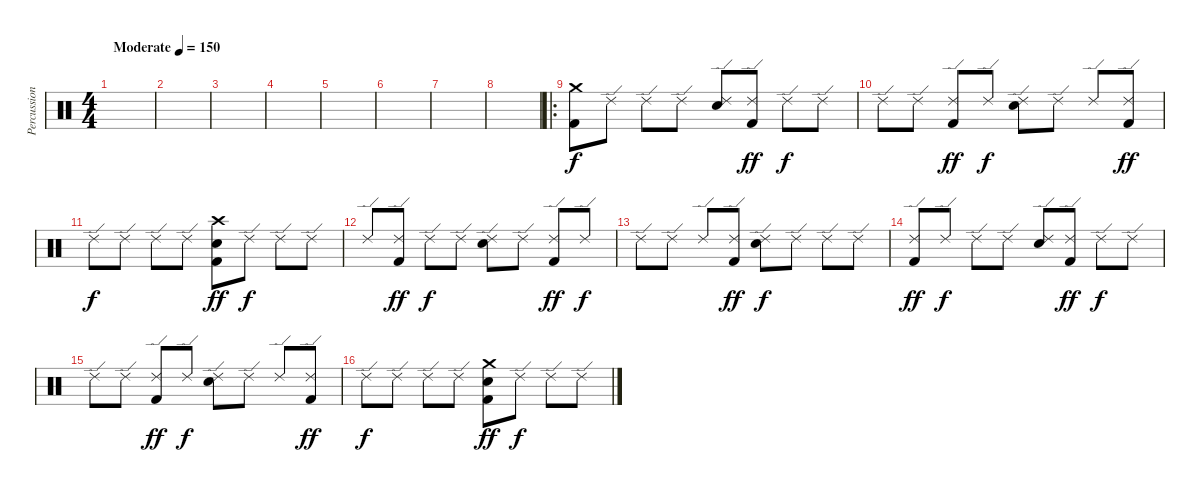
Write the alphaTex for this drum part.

\track ("Percussion" "Percussion") {instrument percussion}
\staff {score}
\articulation defaults
\ts (4 4)
\tempo (150 "Moderate")
\clef neutral
\ks c
|
|
|
|
|
|
|
|
\ro
("Crash medium (hit)" "Kick (hit) 2").8 "Ride (edge) 2".8{dy f} "Ride (edge) 2".8 "Ride (edge) 2".8 ("Ride (edge) 2" "Snare (hit) 2").8 ("Ride (edge) 2" "Kick (hit) 2").8{dy ff} "Ride (edge) 2".8{dy f} "Ride (edge) 2".8 |
"Ride (edge) 2".8 "Ride (edge) 2".8 ("Ride (edge) 2" "Kick (hit) 2").8{dy ff} "Ride (edge) 2".8{dy f} ("Ride (edge) 2" "Snare (hit) 2").8 "Ride (edge) 2".8 "Ride (edge) 2".8 ("Ride (edge) 2" "Kick (hit) 2").8{dy ff} |
"Ride (edge) 2".8{dy f} "Ride (edge) 2".8 "Ride (edge) 2".8 "Ride (edge) 2".8 ("Crash high (hit)" "Snare (hit) 2" "Kick (hit) 2").8{dy ff} "Ride (edge) 2".8{dy f} "Ride (edge) 2".8 "Ride (edge) 2".8 |
"Ride (edge) 2".8 ("Ride (edge) 2" "Kick (hit) 2").8{dy ff} "Ride (edge) 2".8{dy f} "Ride (edge) 2".8 ("Ride (edge) 2" "Snare (hit) 2").8 "Ride (edge) 2".8 ("Ride (edge) 2" "Kick (hit) 2").8{dy ff} "Ride (edge) 2".8{dy f} |
"Ride (edge) 2".8 "Ride (edge) 2".8 "Ride (edge) 2".8 ("Ride (edge) 2" "Kick (hit) 2").8{dy ff} ("Ride (edge) 2" "Snare (hit) 2").8{dy f} "Ride (edge) 2".8 "Ride (edge) 2".8 "Ride (edge) 2".8 |
("Ride (edge) 2" "Kick (hit) 2").8{dy ff} "Ride (edge) 2".8{dy f} "Ride (edge) 2".8 "Ride (edge) 2".8 ("Ride (edge) 2" "Snare (hit) 2").8 ("Ride (edge) 2" "Kick (hit) 2").8{dy ff} "Ride (edge) 2".8{dy f} "Ride (edge) 2".8 |
"Ride (edge) 2".8 "Ride (edge) 2".8 ("Ride (edge) 2" "Kick (hit) 2").8{dy ff} "Ride (edge) 2".8{dy f} ("Ride (edge) 2" "Snare (hit) 2").8 "Ride (edge) 2".8 "Ride (edge) 2".8 ("Ride (edge) 2" "Kick (hit) 2").8{dy ff} |
"Ride (edge) 2".8{dy f} "Ride (edge) 2".8 "Ride (edge) 2".8 "Ride (edge) 2".8 ("Crash medium (hit)" "Snare (hit) 2" "Kick (hit) 2").8{dy ff} "Ride (edge) 2".8{dy f} "Ride (edge) 2".8 "Ride (edge) 2".8
